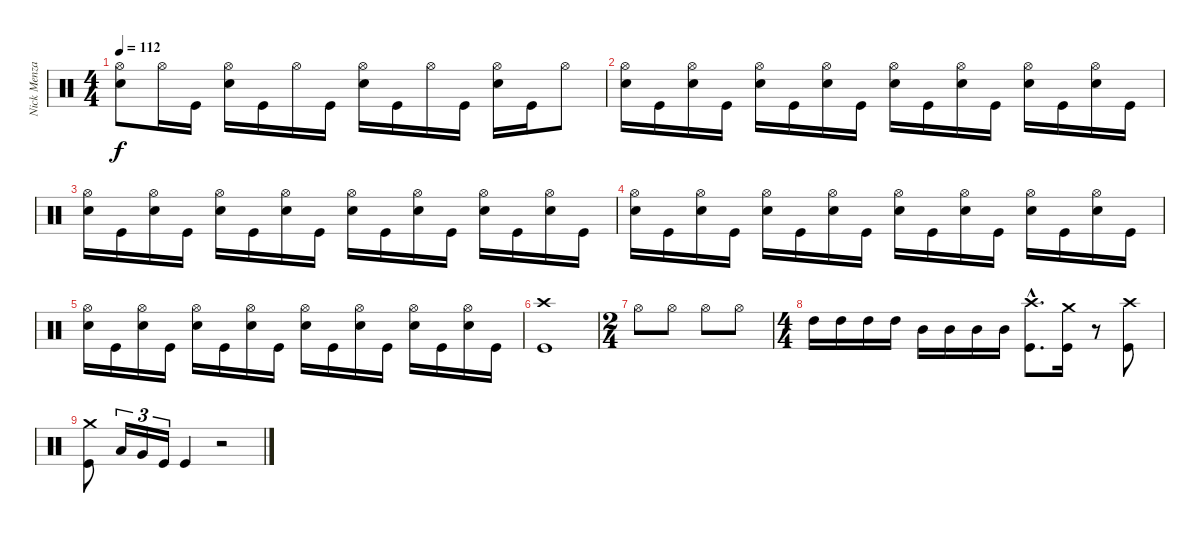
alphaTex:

\track ("Nick Menza" "Nick Menza") {instrument percussion}
\staff {score}
\articulation defaults
\ts (4 4)
\tempo 112
\clef neutral
\ks c
("Hi-Hat (open)" "Snare (hit) 2").8{dy f} "Hi-Hat (open)".16 "Kick (hit)".16 ("Hi-Hat (open)" "Snare (hit) 2").16 "Kick (hit)".16 "Hi-Hat (open)".16 "Kick (hit)".16 ("Hi-Hat (open)" "Snare (hit) 2").16 "Kick (hit)".16 "Hi-Hat (open)".16 "Kick (hit)".16 ("Hi-Hat (open)" "Snare (hit) 2").16 "Kick (hit)".16 "Hi-Hat (open)".8 |
("Hi-Hat (open)" "Snare (hit) 2").16 "Kick (hit)".16 ("Hi-Hat (open)" "Snare (hit) 2").16 "Kick (hit)".16 ("Hi-Hat (open)" "Snare (hit) 2").16 "Kick (hit)".16 ("Hi-Hat (open)" "Snare (hit) 2").16 "Kick (hit)".16 ("Hi-Hat (open)" "Snare (hit) 2").16 "Kick (hit)".16 ("Hi-Hat (open)" "Snare (hit) 2").16 "Kick (hit)".16 ("Hi-Hat (open)" "Snare (hit) 2").16 "Kick (hit)".16 ("Hi-Hat (open)" "Snare (hit) 2").16 "Kick (hit)".16 |
("Hi-Hat (open)" "Snare (hit) 2").16 "Kick (hit)".16 ("Hi-Hat (open)" "Snare (hit) 2").16 "Kick (hit)".16 ("Hi-Hat (open)" "Snare (hit) 2").16 "Kick (hit)".16 ("Hi-Hat (open)" "Snare (hit) 2").16 "Kick (hit)".16 ("Hi-Hat (open)" "Snare (hit) 2").16 "Kick (hit)".16 ("Hi-Hat (open)" "Snare (hit) 2").16 "Kick (hit)".16 ("Hi-Hat (open)" "Snare (hit) 2").16 "Kick (hit)".16 ("Hi-Hat (open)" "Snare (hit) 2").16 "Kick (hit)".16 |
("Hi-Hat (open)" "Snare (hit) 2").16 "Kick (hit)".16 ("Hi-Hat (open)" "Snare (hit) 2").16 "Kick (hit)".16 ("Hi-Hat (open)" "Snare (hit) 2").16 "Kick (hit)".16 ("Hi-Hat (open)" "Snare (hit) 2").16 "Kick (hit)".16 ("Hi-Hat (open)" "Snare (hit) 2").16 "Kick (hit)".16 ("Hi-Hat (open)" "Snare (hit) 2").16 "Kick (hit)".16 ("Hi-Hat (open)" "Snare (hit) 2").16 "Kick (hit)".16 ("Hi-Hat (open)" "Snare (hit) 2").16 "Kick (hit)".16 |
("Hi-Hat (open)" "Snare (hit) 2").16 "Kick (hit)".16 ("Hi-Hat (open)" "Snare (hit) 2").16 "Kick (hit)".16 ("Hi-Hat (open)" "Snare (hit) 2").16 "Kick (hit)".16 ("Hi-Hat (open)" "Snare (hit) 2").16 "Kick (hit)".16 ("Hi-Hat (open)" "Snare (hit) 2").16 "Kick (hit)".16 ("Hi-Hat (open)" "Snare (hit) 2").16 "Kick (hit)".16 ("Hi-Hat (open)" "Snare (hit) 2").16 "Kick (hit)".16 ("Hi-Hat (open)" "Snare (hit) 2").16 "Kick (hit)".16 |
("Crash high (hit)" "Kick (hit)").1 |
\ts (2 4)
"Hi-Hat (open)".8 "Hi-Hat (open)".8 "Hi-Hat (open)".8 "Hi-Hat (open)".8 |
\ts (4 4)
"High Tom (hit)".16 "High Tom (hit)".16 "High Tom (hit)".16 "High Tom (hit)".16 "Mid Tom (hit)".16 "Mid Tom (hit)".16 "Mid Tom (hit)".16 "Mid Tom (hit)".16 ("Crash high (hit)"{hac} "Kick (hit)"{hac}).8{d} ("Crash medium (hit)" "Kick (hit)").16 r.8 ("Crash high (hit)" "Kick (hit)").8 |
("Crash medium (hit)" "Kick (hit)").8 "Low Floor Tom (hit)".16{tu (3 2)} "Very Low Tom (hit)".16{tu (3 2)} "Kick (hit)".16{tu (3 2)} "Kick (hit)".4 r.2
